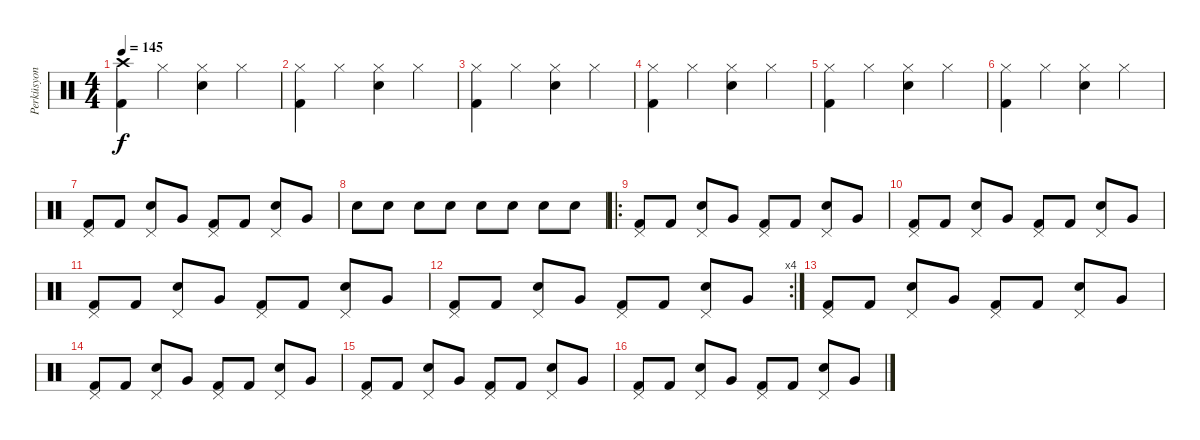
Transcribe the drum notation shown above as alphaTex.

\track ("Perküsyon" "Perküsyon") {instrument percussion}
\staff {score}
\articulation defaults
\ts (4 4)
\tempo 145
\clef neutral
\ks c
("Crash high (hit)" "Kick (hit) 2").4{dy f} "Hi-Hat (closed)".4 ("Hi-Hat (closed)" "Snare (hit) 2").4 "Hi-Hat (closed)".4 |
("Hi-Hat (closed)" "Kick (hit) 2").4 "Hi-Hat (closed)".4 ("Hi-Hat (closed)" "Snare (hit) 2").4 "Hi-Hat (closed)".4 |
("Hi-Hat (closed)" "Kick (hit) 2").4 "Hi-Hat (closed)".4 ("Hi-Hat (closed)" "Snare (hit) 2").4 "Hi-Hat (closed)".4 |
("Hi-Hat (closed)" "Kick (hit) 2").4 "Hi-Hat (closed)".4 ("Hi-Hat (closed)" "Snare (hit) 2").4 "Hi-Hat (closed)".4 |
("Hi-Hat (closed)" "Kick (hit) 2").4 "Hi-Hat (closed)".4 ("Hi-Hat (closed)" "Snare (hit) 2").4 "Hi-Hat (closed)".4 |
("Hi-Hat (closed)" "Kick (hit) 2").4 "Hi-Hat (closed)".4 ("Hi-Hat (closed)" "Snare (hit) 2").4 "Hi-Hat (closed)".4 |
("Pedal Hi-Hat (hit)" "Kick (hit) 2").8 "Kick (hit) 2".8 ("Pedal Hi-Hat (hit)" "Snare (hit) 2").8 "Very Low Tom (hit)".8 ("Pedal Hi-Hat (hit)" "Kick (hit) 2").8 "Kick (hit) 2".8 ("Pedal Hi-Hat (hit)" "Snare (hit) 2").8 "Very Low Tom (hit)".8 |
"Electric Snare (hit)".8 "Electric Snare (hit)".8 "Electric Snare (hit)".8 "Electric Snare (hit)".8 "Electric Snare (hit)".8 "Electric Snare (hit)".8 "Electric Snare (hit)".8 "Electric Snare (hit)".8 |
\ro
("Pedal Hi-Hat (hit)" "Kick (hit) 2").8 "Kick (hit) 2".8 ("Pedal Hi-Hat (hit)" "Snare (hit) 2").8 "Very Low Tom (hit)".8 ("Pedal Hi-Hat (hit)" "Kick (hit) 2").8 "Kick (hit) 2".8 ("Pedal Hi-Hat (hit)" "Snare (hit) 2").8 "Very Low Tom (hit)".8 |
("Pedal Hi-Hat (hit)" "Kick (hit) 2").8 "Kick (hit) 2".8 ("Pedal Hi-Hat (hit)" "Snare (hit) 2").8 "Very Low Tom (hit)".8 ("Pedal Hi-Hat (hit)" "Kick (hit) 2").8 "Kick (hit) 2".8 ("Pedal Hi-Hat (hit)" "Snare (hit) 2").8 "Very Low Tom (hit)".8 |
("Pedal Hi-Hat (hit)" "Kick (hit) 2").8 "Kick (hit) 2".8 ("Pedal Hi-Hat (hit)" "Snare (hit) 2").8 "Very Low Tom (hit)".8 ("Pedal Hi-Hat (hit)" "Kick (hit) 2").8 "Kick (hit) 2".8 ("Pedal Hi-Hat (hit)" "Snare (hit) 2").8 "Very Low Tom (hit)".8 |
\rc 4
("Pedal Hi-Hat (hit)" "Kick (hit) 2").8 "Kick (hit) 2".8 ("Pedal Hi-Hat (hit)" "Snare (hit) 2").8 "Very Low Tom (hit)".8 ("Pedal Hi-Hat (hit)" "Kick (hit) 2").8 "Kick (hit) 2".8 ("Pedal Hi-Hat (hit)" "Snare (hit) 2").8 "Very Low Tom (hit)".8 |
("Pedal Hi-Hat (hit)" "Kick (hit) 2").8 "Kick (hit) 2".8 ("Pedal Hi-Hat (hit)" "Snare (hit) 2").8 "Very Low Tom (hit)".8 ("Pedal Hi-Hat (hit)" "Kick (hit) 2").8 "Kick (hit) 2".8 ("Pedal Hi-Hat (hit)" "Snare (hit) 2").8 "Very Low Tom (hit)".8 |
("Pedal Hi-Hat (hit)" "Kick (hit) 2").8 "Kick (hit) 2".8 ("Pedal Hi-Hat (hit)" "Snare (hit) 2").8 "Very Low Tom (hit)".8 ("Pedal Hi-Hat (hit)" "Kick (hit) 2").8 "Kick (hit) 2".8 ("Pedal Hi-Hat (hit)" "Snare (hit) 2").8 "Very Low Tom (hit)".8 |
("Pedal Hi-Hat (hit)" "Kick (hit) 2").8 "Kick (hit) 2".8 ("Pedal Hi-Hat (hit)" "Snare (hit) 2").8 "Very Low Tom (hit)".8 ("Pedal Hi-Hat (hit)" "Kick (hit) 2").8 "Kick (hit) 2".8 ("Pedal Hi-Hat (hit)" "Snare (hit) 2").8 "Very Low Tom (hit)".8 |
("Pedal Hi-Hat (hit)" "Kick (hit) 2").8 "Kick (hit) 2".8 ("Pedal Hi-Hat (hit)" "Snare (hit) 2").8 "Very Low Tom (hit)".8 ("Pedal Hi-Hat (hit)" "Kick (hit) 2").8 "Kick (hit) 2".8 ("Pedal Hi-Hat (hit)" "Snare (hit) 2").8 "Very Low Tom (hit)".8
